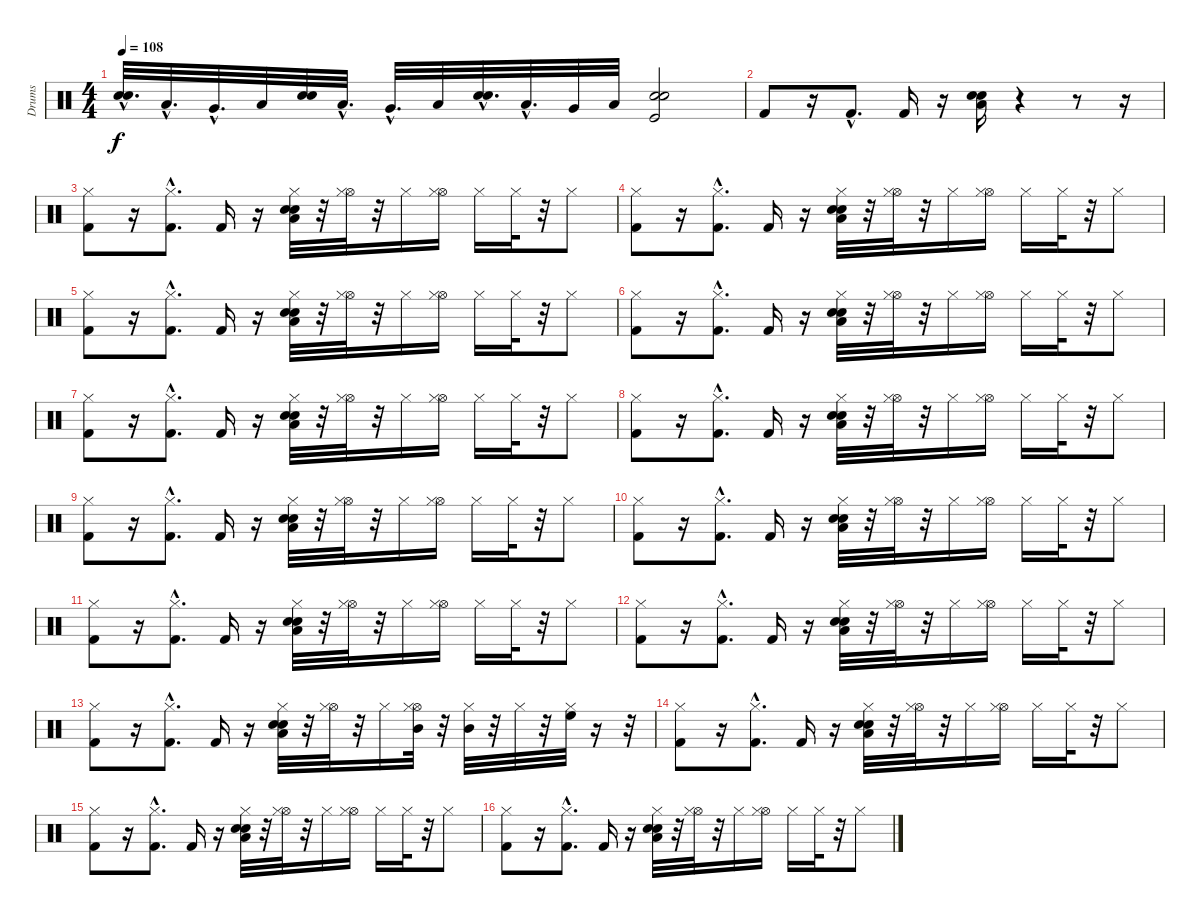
\track ("Drums" "Drums") {instrument percussion}
\staff {score}
\articulation defaults
\ts (4 4)
\tempo 108
\clef neutral
\ks c
("Snare (hit) 2"{hac} "Electric Snare (hit)"{hac}).32{d dy f} "Low Tom (hit)"{hac}.32{d} "Very Low Tom (hit)"{hac}.32{d} "Low Floor Tom (hit)".32 ("Snare (hit) 2" "Electric Snare (hit)").32 "Low Tom (hit)"{hac}.32{d} "Very Low Tom (hit)"{hac}.32{d} "Low Floor Tom (hit)".32 ("Snare (hit) 2"{hac} "Electric Snare (hit)"{hac}).32{d} "Low Tom (hit)"{hac}.32{d} "Very Low Tom (hit)".32 "Low Floor Tom (hit)".32 ("Snare (hit) 2" "Electric Snare (hit)" "Kick (hit)").2 |
"Kick (hit) 2".8 r.16 "Kick (hit) 2"{hac}.8{d} "Kick (hit) 2".16 r.16 ("Low Floor Tom (hit)" "Electric Snare (hit)" "Snare (hit) 2").16 r.4 r.8 r.16 |
("Hi-Hat (closed)" "Kick (hit) 2").8 r.16 ("Kick (hit) 2"{hac} "Hi-Hat (closed)"{hac}).8{d} "Kick (hit) 2".16 r.16 ("Low Floor Tom (hit)" "Electric Snare (hit)" "Snare (hit) 2" "Hi-Hat (closed)").32 r.32 ("Hi-Hat (open)" "Hi-Hat (closed)").32 r.32 "Hi-Hat (closed)".16 ("Hi-Hat (open)" "Hi-Hat (closed)").16 "Hi-Hat (closed)".16 "Hi-Hat (closed)".32 r.32 "Hi-Hat (closed)".8 |
("Hi-Hat (closed)" "Kick (hit) 2").8 r.16 ("Kick (hit) 2"{hac} "Hi-Hat (closed)"{hac}).8{d} "Kick (hit) 2".16 r.16 ("Low Floor Tom (hit)" "Electric Snare (hit)" "Snare (hit) 2" "Hi-Hat (closed)").32 r.32 ("Hi-Hat (open)" "Hi-Hat (closed)").32 r.32 "Hi-Hat (closed)".16 ("Hi-Hat (open)" "Hi-Hat (closed)").16 "Hi-Hat (closed)".16 "Hi-Hat (closed)".32 r.32 "Hi-Hat (closed)".8 |
("Hi-Hat (closed)" "Kick (hit) 2").8 r.16 ("Kick (hit) 2"{hac} "Hi-Hat (closed)"{hac}).8{d} "Kick (hit) 2".16 r.16 ("Low Floor Tom (hit)" "Electric Snare (hit)" "Snare (hit) 2" "Hi-Hat (closed)").32 r.32 ("Hi-Hat (open)" "Hi-Hat (closed)").32 r.32 "Hi-Hat (closed)".16 ("Hi-Hat (open)" "Hi-Hat (closed)").16 "Hi-Hat (closed)".16 "Hi-Hat (closed)".32 r.32 "Hi-Hat (closed)".8 |
("Hi-Hat (closed)" "Kick (hit) 2").8 r.16 ("Kick (hit) 2"{hac} "Hi-Hat (closed)"{hac}).8{d} "Kick (hit) 2".16 r.16 ("Low Floor Tom (hit)" "Electric Snare (hit)" "Snare (hit) 2" "Hi-Hat (closed)").32 r.32 ("Hi-Hat (open)" "Hi-Hat (closed)").32 r.32 "Hi-Hat (closed)".16 ("Hi-Hat (open)" "Hi-Hat (closed)").16 "Hi-Hat (closed)".16 "Hi-Hat (closed)".32 r.32 "Hi-Hat (closed)".8 |
("Hi-Hat (closed)" "Kick (hit) 2").8 r.16 ("Kick (hit) 2"{hac} "Hi-Hat (closed)"{hac}).8{d} "Kick (hit) 2".16 r.16 ("Low Floor Tom (hit)" "Electric Snare (hit)" "Snare (hit) 2" "Hi-Hat (closed)").32 r.32 ("Hi-Hat (open)" "Hi-Hat (closed)").32 r.32 "Hi-Hat (closed)".16 ("Hi-Hat (open)" "Hi-Hat (closed)").16 "Hi-Hat (closed)".16 "Hi-Hat (closed)".32 r.32 "Hi-Hat (closed)".8 |
("Hi-Hat (closed)" "Kick (hit) 2").8 r.16 ("Kick (hit) 2"{hac} "Hi-Hat (closed)"{hac}).8{d} "Kick (hit) 2".16 r.16 ("Low Floor Tom (hit)" "Electric Snare (hit)" "Snare (hit) 2" "Hi-Hat (closed)").32 r.32 ("Hi-Hat (open)" "Hi-Hat (closed)").32 r.32 "Hi-Hat (closed)".16 ("Hi-Hat (open)" "Hi-Hat (closed)").16 "Hi-Hat (closed)".16 "Hi-Hat (closed)".32 r.32 "Hi-Hat (closed)".8 |
("Hi-Hat (closed)" "Kick (hit) 2").8 r.16 ("Kick (hit) 2"{hac} "Hi-Hat (closed)"{hac}).8{d} "Kick (hit) 2".16 r.16 ("Low Floor Tom (hit)" "Electric Snare (hit)" "Snare (hit) 2" "Hi-Hat (closed)").32 r.32 ("Hi-Hat (open)" "Hi-Hat (closed)").32 r.32 "Hi-Hat (closed)".16 ("Hi-Hat (open)" "Hi-Hat (closed)").16 "Hi-Hat (closed)".16 "Hi-Hat (closed)".32 r.32 "Hi-Hat (closed)".8 |
("Hi-Hat (closed)" "Kick (hit) 2").8 r.16 ("Kick (hit) 2"{hac} "Hi-Hat (closed)"{hac}).8{d} "Kick (hit) 2".16 r.16 ("Low Floor Tom (hit)" "Electric Snare (hit)" "Snare (hit) 2" "Hi-Hat (closed)").32 r.32 ("Hi-Hat (open)" "Hi-Hat (closed)").32 r.32 "Hi-Hat (closed)".16 ("Hi-Hat (open)" "Hi-Hat (closed)").16 "Hi-Hat (closed)".16 "Hi-Hat (closed)".32 r.32 "Hi-Hat (closed)".8 |
("Hi-Hat (closed)" "Kick (hit) 2").8 r.16 ("Kick (hit) 2"{hac} "Hi-Hat (closed)"{hac}).8{d} "Kick (hit) 2".16 r.16 ("Low Floor Tom (hit)" "Electric Snare (hit)" "Snare (hit) 2" "Hi-Hat (closed)").32 r.32 ("Hi-Hat (open)" "Hi-Hat (closed)").32 r.32 "Hi-Hat (closed)".16 ("Hi-Hat (open)" "Hi-Hat (closed)").16 "Hi-Hat (closed)".16 "Hi-Hat (closed)".32 r.32 "Hi-Hat (closed)".8 |
("Hi-Hat (closed)" "Kick (hit) 2").8 r.16 ("Kick (hit) 2"{hac} "Hi-Hat (closed)"{hac}).8{d} "Kick (hit) 2".16 r.16 ("Low Floor Tom (hit)" "Electric Snare (hit)" "Snare (hit) 2" "Hi-Hat (closed)").32 r.32 ("Hi-Hat (open)" "Hi-Hat (closed)").32 r.32 "Hi-Hat (closed)".16 ("Hi-Hat (open)" "Hi-Hat (closed)").16 "Hi-Hat (closed)".16 "Hi-Hat (closed)".32 r.32 "Hi-Hat (closed)".8 |
("Hi-Hat (closed)" "Kick (hit) 2").8 r.16 ("Kick (hit) 2"{hac} "Hi-Hat (closed)"{hac}).8{d} "Kick (hit) 2".16 r.16 ("Low Floor Tom (hit)" "Electric Snare (hit)" "Snare (hit) 2" "Hi-Hat (closed)").32 r.32 ("Hi-Hat (open)" "Hi-Hat (closed)").32 r.32 "Hi-Hat (closed)".16 ("Hi-Hat (open)" "Hi-Hat (closed)" "Mid Tom (hit)").32 r.32 ("Hi-Hat (closed)" "Mid Tom (hit)").32 r.32 "Hi-Hat (closed)".32 r.32 ("Hi-Hat (closed)" "High Floor Tom (hit)").32 r.16 r.32 |
("Hi-Hat (closed)" "Kick (hit) 2").8 r.16 ("Kick (hit) 2"{hac} "Hi-Hat (closed)"{hac}).8{d} "Kick (hit) 2".16 r.16 ("Low Floor Tom (hit)" "Electric Snare (hit)" "Snare (hit) 2" "Hi-Hat (closed)").32 r.32 ("Hi-Hat (open)" "Hi-Hat (closed)").32 r.32 "Hi-Hat (closed)".16 ("Hi-Hat (open)" "Hi-Hat (closed)").16 "Hi-Hat (closed)".16 "Hi-Hat (closed)".32 r.32 "Hi-Hat (closed)".8 |
("Hi-Hat (closed)" "Kick (hit) 2").8 r.16 ("Kick (hit) 2"{hac} "Hi-Hat (closed)"{hac}).8{d} "Kick (hit) 2".16 r.16 ("Low Floor Tom (hit)" "Electric Snare (hit)" "Snare (hit) 2" "Hi-Hat (closed)").32 r.32 ("Hi-Hat (open)" "Hi-Hat (closed)").32 r.32 "Hi-Hat (closed)".16 ("Hi-Hat (open)" "Hi-Hat (closed)").16 "Hi-Hat (closed)".16 "Hi-Hat (closed)".32 r.32 "Hi-Hat (closed)".8 |
("Hi-Hat (closed)" "Kick (hit) 2").8 r.16 ("Kick (hit) 2"{hac} "Hi-Hat (closed)"{hac}).8{d} "Kick (hit) 2".16 r.16 ("Low Floor Tom (hit)" "Electric Snare (hit)" "Snare (hit) 2" "Hi-Hat (closed)").32 r.32 ("Hi-Hat (open)" "Hi-Hat (closed)").32 r.32 "Hi-Hat (closed)".16 ("Hi-Hat (open)" "Hi-Hat (closed)").16 "Hi-Hat (closed)".16 "Hi-Hat (closed)".32 r.32 "Hi-Hat (closed)".8
